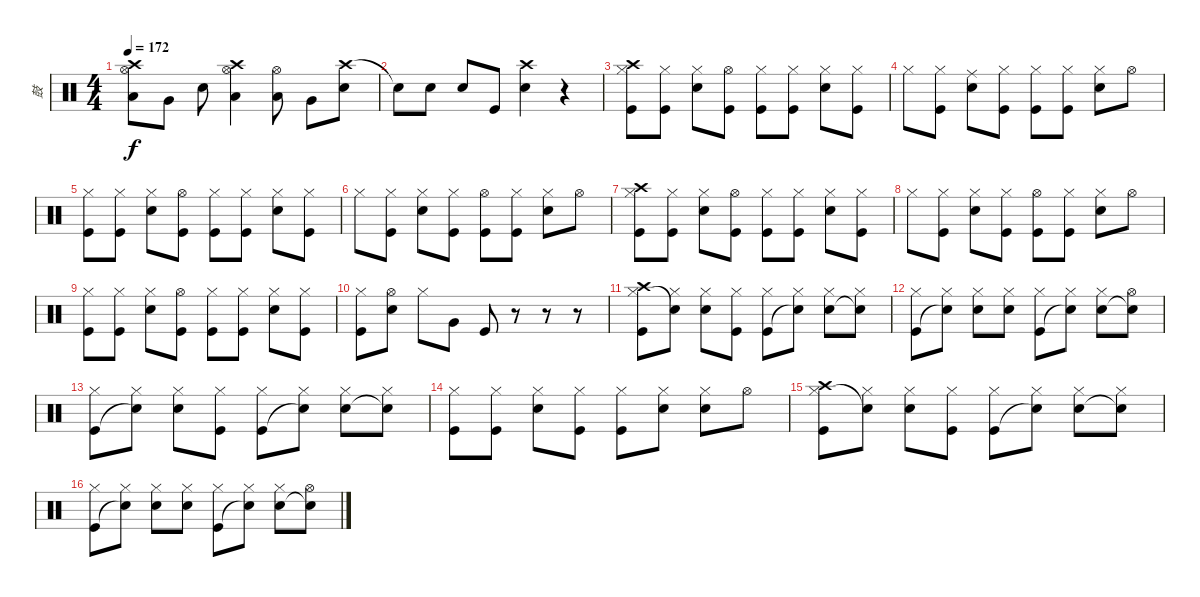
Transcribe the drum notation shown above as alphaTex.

\track ("鼓" "鼓") {instrument percussion}
\staff {score}
\articulation defaults
\ts (4 4)
\tempo 172
\clef neutral
\ks c
("Crash high (hit)" "Hi-Hat (open)" "Low Tom (hit)").8{dy f} "Very Low Tom (hit)".8 "Snare (hit) 2".8 ("Crash high (hit)" "Hi-Hat (open)" "Low Tom (hit)").4 ("Hi-Hat (open)" "Low Tom (hit)").8 "Very Low Tom (hit)".8 ("Crash high (hit)" "Snare (hit) 2").8 |
"Snare (hit) 2"{t}.8 "Snare (hit) 2".8 "Snare (hit) 2".8 "Kick (hit)".8 ("Crash high (hit)" "Snare (hit) 2").4 r.4 |
("Crash high (hit)" "Hi-Hat (closed)" "Kick (hit)").8 ("Hi-Hat (closed)" "Kick (hit)").8 ("Hi-Hat (closed)" "Snare (hit) 2").8 ("Hi-Hat (open)" "Kick (hit)").8 ("Hi-Hat (closed)" "Kick (hit)").8 ("Hi-Hat (closed)" "Kick (hit)").8 ("Hi-Hat (closed)" "Snare (hit) 2").8 ("Hi-Hat (closed)" "Kick (hit)").8 |
"Hi-Hat (closed)".8 ("Hi-Hat (closed)" "Kick (hit)").8 ("Ride (middle)" "Snare (hit) 2").8 ("Hi-Hat (closed)" "Kick (hit)").8 ("Hi-Hat (closed)" "Kick (hit)").8 ("Hi-Hat (closed)" "Kick (hit)").8 ("Hi-Hat (closed)" "Snare (hit) 2").8 "Hi-Hat (open)".8 |
("Hi-Hat (closed)" "Kick (hit)").8 ("Hi-Hat (closed)" "Kick (hit)").8 ("Hi-Hat (closed)" "Snare (hit) 2").8 ("Hi-Hat (open)" "Kick (hit)").8 ("Hi-Hat (closed)" "Kick (hit)").8 ("Hi-Hat (closed)" "Kick (hit)").8 ("Hi-Hat (closed)" "Snare (hit) 2").8 ("Hi-Hat (closed)" "Kick (hit)").8 |
"Hi-Hat (closed)".8 ("Hi-Hat (closed)" "Kick (hit)").8 ("Hi-Hat (closed)" "Snare (hit) 2").8 ("Hi-Hat (closed)" "Kick (hit)").8 ("Hi-Hat (open)" "Kick (hit)").8 ("Hi-Hat (closed)" "Kick (hit)").8 ("Hi-Hat (closed)" "Snare (hit) 2").8 "Hi-Hat (open)".8 |
("Crash high (hit)" "Hi-Hat (closed)" "Kick (hit)").8 ("Hi-Hat (closed)" "Kick (hit)").8 ("Hi-Hat (closed)" "Snare (hit) 2").8 ("Hi-Hat (open)" "Kick (hit)").8 ("Hi-Hat (closed)" "Kick (hit)").8 ("Hi-Hat (closed)" "Kick (hit)").8 ("Hi-Hat (closed)" "Snare (hit) 2").8 ("Hi-Hat (closed)" "Kick (hit)").8 |
"Hi-Hat (closed)".8 ("Hi-Hat (closed)" "Kick (hit)").8 ("Hi-Hat (closed)" "Snare (hit) 2").8 ("Hi-Hat (closed)" "Kick (hit)").8 ("Hi-Hat (open)" "Kick (hit)").8 ("Hi-Hat (closed)" "Kick (hit)").8 ("Hi-Hat (closed)" "Snare (hit) 2").8 "Hi-Hat (open)".8 |
("Hi-Hat (closed)" "Kick (hit)").8 ("Hi-Hat (closed)" "Kick (hit)").8 ("Hi-Hat (closed)" "Snare (hit) 2").8 ("Hi-Hat (open)" "Kick (hit)").8 ("Hi-Hat (closed)" "Kick (hit)").8 ("Hi-Hat (closed)" "Kick (hit)").8 ("Hi-Hat (closed)" "Snare (hit) 2").8 ("Hi-Hat (closed)" "Kick (hit)").8 |
("Hi-Hat (closed)" "Kick (hit)").8 ("Hi-Hat (open)" "Snare (hit) 2").8 "Hi-Hat (closed)".8 "Very Low Tom (hit)".8 "Kick (hit)".8 r.8 r.8 r.8 |
("Crash high (hit)" "Hi-Hat (closed)" "Kick (hit)").8 ("Hi-Hat (closed)" "Snare (hit)"{t}).8 ("Hi-Hat (closed)" "Snare (hit) 2").8 ("Hi-Hat (closed)" "Kick (hit)").8 ("Hi-Hat (closed)" "Kick (hit)").8 ("Hi-Hat (closed)" "Snare (hit)"{t}).8 ("Hi-Hat (closed)" "Snare (hit) 2").8 ("Hi-Hat (closed)" "Snare (hit)"{t}).8 |
("Hi-Hat (closed)" "Kick (hit)").8 ("Hi-Hat (closed)" "Snare (hit)"{t}).8 ("Hi-Hat (closed)" "Snare (hit) 2").8 ("Hi-Hat (closed)" "Snare (hit) 2").8 ("Hi-Hat (closed)" "Kick (hit)").8 ("Hi-Hat (closed)" "Snare (hit)"{t}).8 ("Hi-Hat (closed)" "Snare (hit) 2").8 ("Hi-Hat (open)" "Snare (hit)"{t}).8 |
("Hi-Hat (closed)" "Kick (hit)").8 ("Hi-Hat (closed)" "Snare (hit)"{t}).8 ("Hi-Hat (closed)" "Snare (hit) 2").8 ("Hi-Hat (closed)" "Kick (hit)").8 ("Hi-Hat (closed)" "Kick (hit)").8 ("Hi-Hat (closed)" "Snare (hit)"{t}).8 ("Hi-Hat (closed)" "Snare (hit) 2").8 ("Hi-Hat (closed)" "Snare (hit)"{t}).8 |
("Hi-Hat (closed)" "Kick (hit)").8 ("Hi-Hat (closed)" "Kick (hit)").8 ("Hi-Hat (closed)" "Snare (hit) 2").8 ("Hi-Hat (closed)" "Kick (hit)").8 ("Hi-Hat (closed)" "Kick (hit)").8 ("Hi-Hat (closed)" "Snare (hit) 2").8 ("Hi-Hat (closed)" "Snare (hit) 2").8 "Hi-Hat (open)".8 |
("Crash high (hit)" "Hi-Hat (closed)" "Kick (hit)").8 ("Hi-Hat (closed)" "Snare (hit)"{t}).8 ("Hi-Hat (closed)" "Snare (hit) 2").8 ("Hi-Hat (closed)" "Kick (hit)").8 ("Hi-Hat (closed)" "Kick (hit)").8 ("Hi-Hat (closed)" "Snare (hit)"{t}).8 ("Hi-Hat (closed)" "Snare (hit) 2").8 ("Hi-Hat (closed)" "Snare (hit)"{t}).8 |
("Hi-Hat (closed)" "Kick (hit)").8 ("Hi-Hat (closed)" "Snare (hit)"{t}).8 ("Hi-Hat (closed)" "Snare (hit) 2").8 ("Hi-Hat (closed)" "Snare (hit) 2").8 ("Hi-Hat (closed)" "Kick (hit)").8 ("Hi-Hat (closed)" "Snare (hit)"{t}).8 ("Hi-Hat (closed)" "Snare (hit) 2").8 ("Hi-Hat (open)" "Snare (hit)"{t}).8
